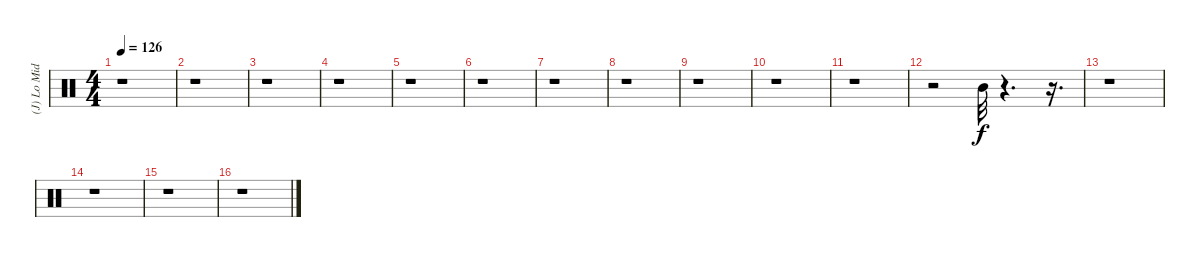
\track ("(J) Lo Mid Tom" "(J) Lo Mid") {instrument percussion}
\staff {score}
\articulation defaults
\ts (4 4)
\tempo 126
\clef neutral
\ks c
r.1{dy f} |
r.1 |
r.1 |
r.1 |
r.1 |
r.1 |
r.1 |
r.1 |
r.1 |
r.1 |
r.1 |
r.2 "Mid Tom (hit)".32 r.4{d} r.16{d} |
r.1 |
r.1 |
r.1 |
r.1
